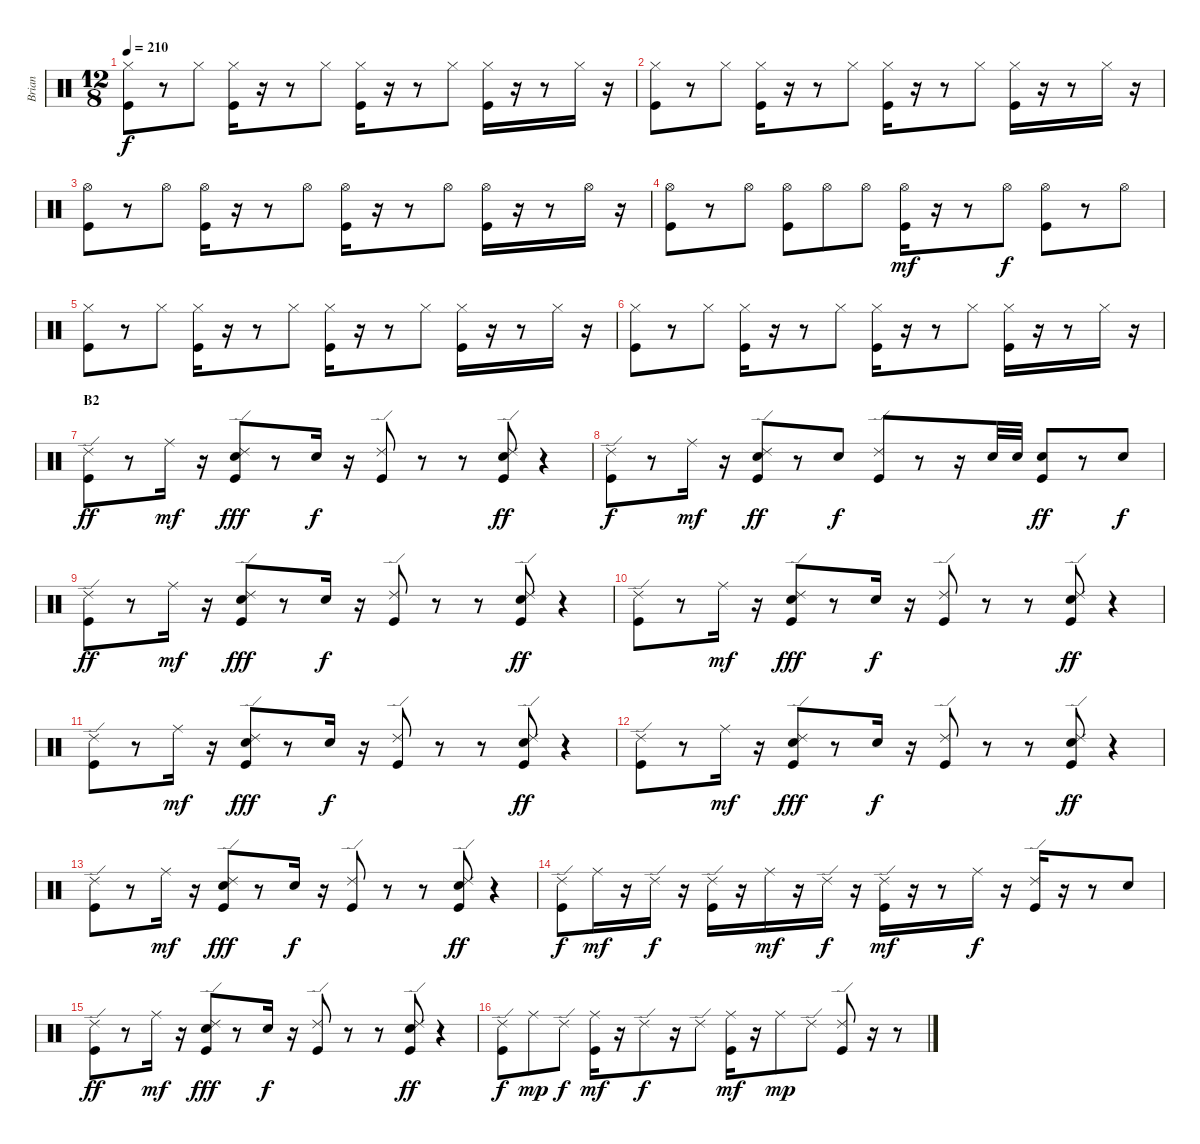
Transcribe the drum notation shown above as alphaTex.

\track ("Brian" "Brian") {instrument percussion}
\staff {score}
\articulation defaults
\ts (12 8)
\tempo 210
\clef neutral
\ks c
("Hi-Hat (closed)" "Kick (hit)").8{dy f} r.8 "Hi-Hat (closed)".8 ("Hi-Hat (closed)" "Kick (hit)").16 r.16 r.8 "Hi-Hat (closed)".8 ("Hi-Hat (closed)" "Kick (hit)").16 r.16 r.8 "Hi-Hat (closed)".8 ("Hi-Hat (closed)" "Kick (hit)").16 r.16 r.8 "Hi-Hat (closed)".16 r.16 |
("Hi-Hat (closed)" "Kick (hit)").8 r.8 "Hi-Hat (closed)".8 ("Hi-Hat (closed)" "Kick (hit)").16 r.16 r.8 "Hi-Hat (closed)".8 ("Hi-Hat (closed)" "Kick (hit)").16 r.16 r.8 "Hi-Hat (closed)".8 ("Hi-Hat (closed)" "Kick (hit)").16 r.16 r.8 "Hi-Hat (closed)".16 r.16 |
("Hi-Hat (open)" "Kick (hit)").8 r.8 "Hi-Hat (open)".8 ("Hi-Hat (open)" "Kick (hit)").16 r.16 r.8 "Hi-Hat (open)".8 ("Hi-Hat (open)" "Kick (hit)").16 r.16 r.8 "Hi-Hat (open)".8 ("Hi-Hat (open)" "Kick (hit)").16 r.16 r.8 "Hi-Hat (open)".16 r.16 |
("Hi-Hat (open)" "Kick (hit)").8 r.8 "Hi-Hat (open)".8 ("Hi-Hat (open)" "Kick (hit)").8 "Hi-Hat (open)".8 "Hi-Hat (open)".8 ("Hi-Hat (open)" "Kick (hit)").16{dy mf} r.16 r.8 "Hi-Hat (open)".8{dy f} ("Hi-Hat (open)" "Kick (hit)").8 r.8 "Hi-Hat (open)".8 |
("Hi-Hat (closed)" "Kick (hit)").8 r.8 "Hi-Hat (closed)".8 ("Hi-Hat (closed)" "Kick (hit)").16 r.16 r.8 "Hi-Hat (closed)".8 ("Hi-Hat (closed)" "Kick (hit)").16 r.16 r.8 "Hi-Hat (closed)".8 ("Hi-Hat (closed)" "Kick (hit)").16 r.16 r.8 "Hi-Hat (closed)".16 r.16 |
("Hi-Hat (closed)" "Kick (hit)").8 r.8 "Hi-Hat (closed)".8 ("Hi-Hat (closed)" "Kick (hit)").16 r.16 r.8 "Hi-Hat (closed)".8 ("Hi-Hat (closed)" "Kick (hit)").16 r.16 r.8 "Hi-Hat (closed)".8 ("Hi-Hat (closed)" "Kick (hit)").16 r.16 r.8 "Hi-Hat (closed)".16 r.16 |
\section ("" "B2")
("Ride (edge) 2" "Kick (hit)").8{dy ff} r.8 "Ride (middle)".16{dy mf} r.16 ("Ride (edge) 2" "Electric Snare (hit)" "Kick (hit)").8{dy fff} r.8 "Electric Snare (hit)".16{dy f} r.16 ("Ride (edge) 2" "Kick (hit)").8 r.8 r.8 ("Ride (edge) 2" "Electric Snare (hit)" "Kick (hit)").8{dy ff} r.4 |
("Ride (edge) 2" "Kick (hit)").8{dy f} r.8 "Ride (middle)".16{dy mf} r.16 ("Ride (edge) 2" "Electric Snare (hit)" "Kick (hit)").8{dy ff} r.8 "Electric Snare (hit)".8{dy f} ("Ride (edge) 2" "Kick (hit)").8 r.8 r.16 "Electric Snare (hit)".32 "Electric Snare (hit)".32 ("Electric Snare (hit)" "Kick (hit)").8{dy ff} r.8 "Electric Snare (hit)".8{dy f} |
("Ride (edge) 2" "Kick (hit)").8{dy ff} r.8 "Ride (middle)".16{dy mf} r.16 ("Ride (edge) 2" "Electric Snare (hit)" "Kick (hit)").8{dy fff} r.8 "Electric Snare (hit)".16{dy f} r.16 ("Ride (edge) 2" "Kick (hit)").8 r.8 r.8 ("Ride (edge) 2" "Electric Snare (hit)" "Kick (hit)").8{dy ff} r.4 |
("Ride (edge) 2" "Kick (hit)").8 r.8 "Ride (middle)".16{dy mf} r.16 ("Ride (edge) 2" "Electric Snare (hit)" "Kick (hit)").8{dy fff} r.8 "Electric Snare (hit)".16{dy f} r.16 ("Ride (edge) 2" "Kick (hit)").8 r.8 r.8 ("Ride (edge) 2" "Electric Snare (hit)" "Kick (hit)").8{dy ff} r.4 |
("Ride (edge) 2" "Kick (hit)").8 r.8 "Ride (middle)".16{dy mf} r.16 ("Ride (edge) 2" "Electric Snare (hit)" "Kick (hit)").8{dy fff} r.8 "Electric Snare (hit)".16{dy f} r.16 ("Ride (edge) 2" "Kick (hit)").8 r.8 r.8 ("Ride (edge) 2" "Electric Snare (hit)" "Kick (hit)").8{dy ff} r.4 |
("Ride (edge) 2" "Kick (hit)").8 r.8 "Ride (middle)".16{dy mf} r.16 ("Ride (edge) 2" "Electric Snare (hit)" "Kick (hit)").8{dy fff} r.8 "Electric Snare (hit)".16{dy f} r.16 ("Ride (edge) 2" "Kick (hit)").8 r.8 r.8 ("Ride (edge) 2" "Electric Snare (hit)" "Kick (hit)").8{dy ff} r.4 |
("Ride (edge) 2" "Kick (hit)").8 r.8 "Ride (middle)".16{dy mf} r.16 ("Ride (edge) 2" "Electric Snare (hit)" "Kick (hit)").8{dy fff} r.8 "Electric Snare (hit)".16{dy f} r.16 ("Ride (edge) 2" "Kick (hit)").8 r.8 r.8 ("Ride (edge) 2" "Electric Snare (hit)" "Kick (hit)").8{dy ff} r.4 |
("Ride (edge) 2" "Kick (hit)").8{dy f} "Ride (middle)".16{dy mf} r.16 "Ride (edge) 2".16{dy f} r.16 ("Ride (edge) 2" "Kick (hit)").16 r.16 "Ride (middle)".16{dy mf} r.16 "Ride (edge) 2".16{dy f} r.16 ("Ride (edge) 2" "Kick (hit)").16{dy mf} r.16 r.8 "Ride (middle)".16{dy f} r.16 ("Ride (edge) 2" "Kick (hit)").16 r.16 r.8 "Electric Snare (hit)".8 |
("Ride (edge) 2" "Kick (hit)").8{dy ff} r.8 "Ride (middle)".16{dy mf} r.16 ("Ride (edge) 2" "Electric Snare (hit)" "Kick (hit)").8{dy fff} r.8 "Electric Snare (hit)".16{dy f} r.16 ("Ride (edge) 2" "Kick (hit)").8 r.8 r.8 ("Ride (edge) 2" "Electric Snare (hit)" "Kick (hit)").8{dy ff} r.4 |
("Ride (edge) 2" "Kick (hit)").8{dy f} "Ride (middle)".8{dy mp} "Ride (edge) 2".8{dy f} ("Ride (middle)" "Kick (hit)").16{dy mf} r.16 "Ride (edge) 2".8{dy f} r.16 "Ride (edge) 2".8 ("Ride (middle)" "Kick (hit)").16{dy mf} r.16 "Ride (middle)".8{dy mp} "Ride (edge) 2".8 ("Ride (edge) 2" "Kick (hit)").8 r.16 r.8
